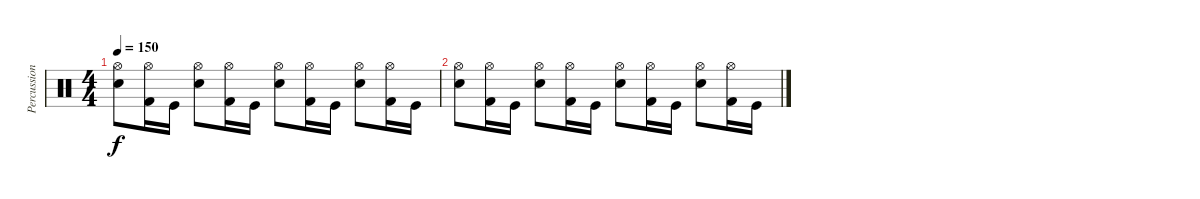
\track ("Percussions" "Percussion") {instrument percussion}
\staff {score}
\articulation defaults
\ts (4 4)
\tempo 150
\clef neutral
\ks c
("Hi-Hat (open)" "Electric Snare (hit)").8{dy f} ("Hi-Hat (open)" "Kick (hit) 2").16 "Kick (hit)".16 ("Hi-Hat (open)" "Electric Snare (hit)").8 ("Hi-Hat (open)" "Kick (hit) 2").16 "Kick (hit)".16 ("Hi-Hat (open)" "Electric Snare (hit)").8 ("Hi-Hat (open)" "Kick (hit) 2").16 "Kick (hit)".16 ("Hi-Hat (open)" "Electric Snare (hit)").8 ("Hi-Hat (open)" "Kick (hit) 2").16 "Kick (hit)".16 |
("Hi-Hat (open)" "Electric Snare (hit)").8{volume 0} ("Hi-Hat (open)" "Kick (hit) 2").16 "Kick (hit)".16 ("Hi-Hat (open)" "Electric Snare (hit)").8 ("Hi-Hat (open)" "Kick (hit) 2").16 "Kick (hit)".16 ("Hi-Hat (open)" "Electric Snare (hit)").8 ("Hi-Hat (open)" "Kick (hit) 2").16 "Kick (hit)".16 ("Hi-Hat (open)" "Electric Snare (hit)").8 ("Hi-Hat (open)" "Kick (hit) 2").16 "Kick (hit)".16
